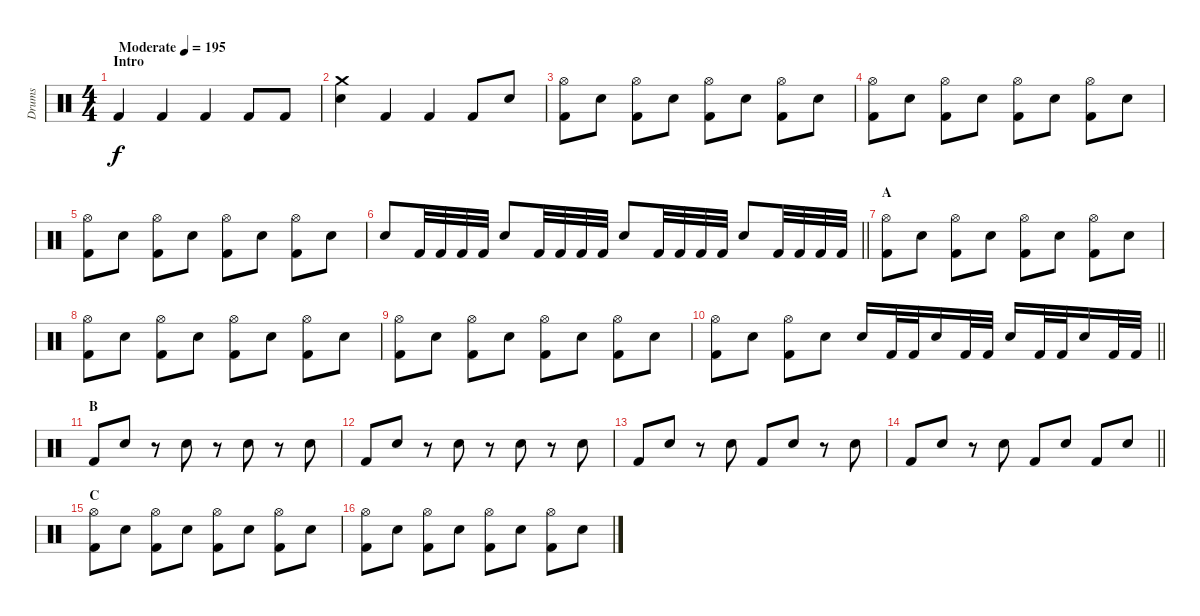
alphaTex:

\track ("Drums" "Drums") {instrument percussion}
\staff {score}
\articulation defaults
\ts (4 4)
\section ("" "Intro")
\tempo (195 "Moderate")
\clef neutral
\ks c "Kick (hit) 2".4{dy f} "Kick (hit) 2".4 "Kick (hit) 2".4 "Kick (hit) 2".8 "Kick (hit) 2".8
|
("Crash medium (hit)" "Electric Snare (hit)").4 "Kick (hit) 2".4 "Kick (hit) 2".4 "Kick (hit) 2".8 "Electric Snare (hit)".8 |
("Hi-Hat (open)" "Kick (hit) 2").8 "Electric Snare (hit)".8 ("Hi-Hat (open)" "Kick (hit) 2").8 "Electric Snare (hit)".8 ("Hi-Hat (open)" "Kick (hit) 2").8 "Electric Snare (hit)".8 ("Hi-Hat (open)" "Kick (hit) 2").8 "Electric Snare (hit)".8 |
("Hi-Hat (open)" "Kick (hit) 2").8 "Electric Snare (hit)".8 ("Hi-Hat (open)" "Kick (hit) 2").8 "Electric Snare (hit)".8 ("Hi-Hat (open)" "Kick (hit) 2").8 "Electric Snare (hit)".8 ("Hi-Hat (open)" "Kick (hit) 2").8 "Electric Snare (hit)".8 |
("Hi-Hat (open)" "Kick (hit) 2").8 "Electric Snare (hit)".8 ("Hi-Hat (open)" "Kick (hit) 2").8 "Electric Snare (hit)".8 ("Hi-Hat (open)" "Kick (hit) 2").8 "Electric Snare (hit)".8 ("Hi-Hat (open)" "Kick (hit) 2").8 "Electric Snare (hit)".8 |
\barLineRight lightlight "Electric Snare (hit)".8 "Kick (hit) 2".32 "Kick (hit) 2".32 "Kick (hit) 2".32 "Kick (hit) 2".32 "Electric Snare (hit)".8 "Kick (hit) 2".32 "Kick (hit) 2".32 "Kick (hit) 2".32 "Kick (hit) 2".32 "Electric Snare (hit)".8 "Kick (hit) 2".32 "Kick (hit) 2".32 "Kick (hit) 2".32 "Kick (hit) 2".32 "Electric Snare (hit)".8 "Kick (hit) 2".32 "Kick (hit) 2".32 "Kick (hit) 2".32 "Kick (hit) 2".32
|
\section ("" "A")
("Hi-Hat (open)" "Kick (hit) 2").8 "Electric Snare (hit)".8 ("Hi-Hat (open)" "Kick (hit) 2").8 "Electric Snare (hit)".8 ("Hi-Hat (open)" "Kick (hit) 2").8 "Electric Snare (hit)".8 ("Hi-Hat (open)" "Kick (hit) 2").8 "Electric Snare (hit)".8 |
("Hi-Hat (open)" "Kick (hit) 2").8 "Electric Snare (hit)".8 ("Hi-Hat (open)" "Kick (hit) 2").8 "Electric Snare (hit)".8 ("Hi-Hat (open)" "Kick (hit) 2").8 "Electric Snare (hit)".8 ("Hi-Hat (open)" "Kick (hit) 2").8 "Electric Snare (hit)".8 |
("Hi-Hat (open)" "Kick (hit) 2").8 "Electric Snare (hit)".8 ("Hi-Hat (open)" "Kick (hit) 2").8 "Electric Snare (hit)".8 ("Hi-Hat (open)" "Kick (hit) 2").8 "Electric Snare (hit)".8 ("Hi-Hat (open)" "Kick (hit) 2").8 "Electric Snare (hit)".8 |
\barLineRight lightlight
("Hi-Hat (open)" "Kick (hit) 2").8 "Electric Snare (hit)".8 ("Hi-Hat (open)" "Kick (hit) 2").8 "Electric Snare (hit)".8 "Electric Snare (hit)".16 "Kick (hit) 2".32 "Kick (hit) 2".32 "Electric Snare (hit)".16 "Kick (hit) 2".32 "Kick (hit) 2".32 "Electric Snare (hit)".16 "Kick (hit) 2".32 "Kick (hit) 2".32 "Electric Snare (hit)".16 "Kick (hit) 2".32 "Kick (hit) 2".32 |
\section ("" "B")
"Kick (hit) 2".8 "Electric Snare (hit)".8 r.8 "Electric Snare (hit)".8 r.8 "Electric Snare (hit)".8 r.8 "Electric Snare (hit)".8 |
"Kick (hit) 2".8 "Electric Snare (hit)".8 r.8 "Electric Snare (hit)".8 r.8 "Electric Snare (hit)".8 r.8 "Electric Snare (hit)".8 |
"Kick (hit) 2".8 "Electric Snare (hit)".8 r.8 "Electric Snare (hit)".8 "Kick (hit) 2".8 "Electric Snare (hit)".8 r.8 "Electric Snare (hit)".8 |
\barLineRight lightlight "Kick (hit) 2".8 "Electric Snare (hit)".8
r.8 "Electric Snare (hit)".8 "Kick (hit) 2".8 "Electric Snare (hit)".8 "Kick (hit) 2".8 "Electric Snare (hit)".8 |
\section ("" "C")
("Hi-Hat (open)" "Kick (hit) 2").8 "Electric Snare (hit)".8 ("Hi-Hat (open)" "Kick (hit) 2").8 "Electric Snare (hit)".8 ("Hi-Hat (open)" "Kick (hit) 2").8 "Electric Snare (hit)".8 ("Hi-Hat (open)" "Kick (hit) 2").8 "Electric Snare (hit)".8 |
("Hi-Hat (open)" "Kick (hit) 2").8 "Electric Snare (hit)".8 ("Hi-Hat (open)" "Kick (hit) 2").8 "Electric Snare (hit)".8 ("Hi-Hat (open)" "Kick (hit) 2").8 "Electric Snare (hit)".8 ("Hi-Hat (open)" "Kick (hit) 2").8 "Electric Snare (hit)".8
